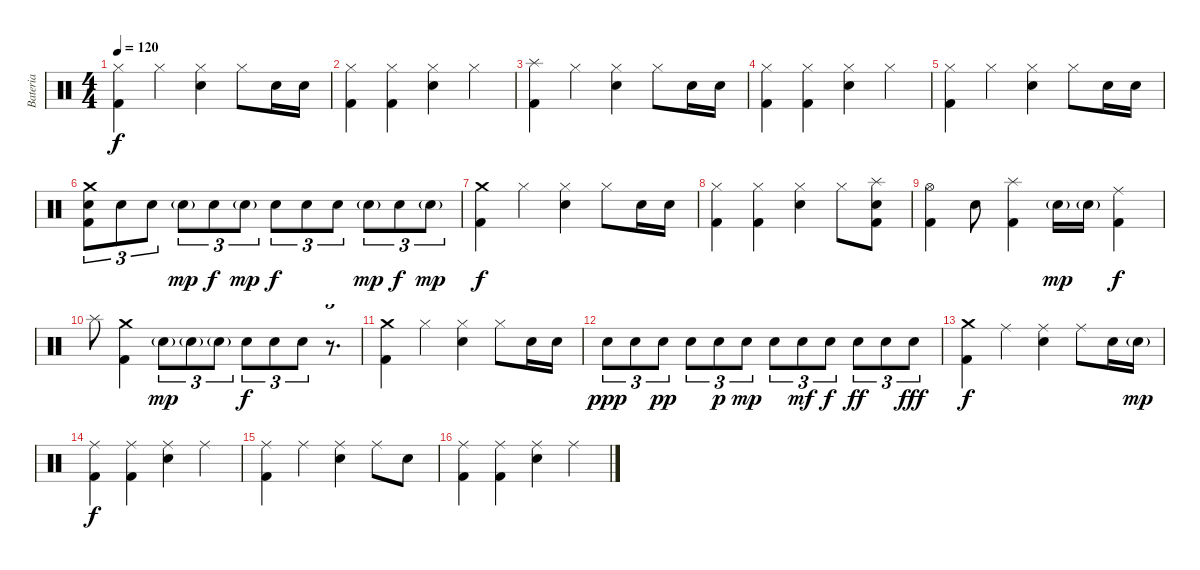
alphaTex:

\track ("Bateria" "Bateria") {instrument percussion}
\staff
\articulation defaults
\ts (4 4)
\tempo 120
\clef neutral
\ks c
("Hi-Hat (closed)" "Kick (hit) 2").4{dy f} "Hi-Hat (closed)".4 ("Hi-Hat (closed)" "Electric Snare (hit)").4 "Hi-Hat (closed)".8 "Electric Snare (hit)".16 "Electric Snare (hit)".16 |
("Hi-Hat (closed)" "Kick (hit) 2").4 ("Hi-Hat (closed)" "Kick (hit) 2").4 ("Hi-Hat (closed)" "Electric Snare (hit)").4 "Hi-Hat (closed)".4 |
("Splash (hit)" "Kick (hit) 2").4 "Hi-Hat (closed)".4 ("Hi-Hat (closed)" "Electric Snare (hit)").4 "Hi-Hat (closed)".8 "Electric Snare (hit)".16 "Electric Snare (hit)".16 |
("Hi-Hat (closed)" "Kick (hit) 2").4 ("Hi-Hat (closed)" "Kick (hit) 2").4 ("Hi-Hat (closed)" "Electric Snare (hit)").4 "Hi-Hat (closed)".4 |
("Hi-Hat (closed)" "Kick (hit) 2").4 "Hi-Hat (closed)".4 ("Hi-Hat (closed)" "Electric Snare (hit)").4 "Hi-Hat (closed)".8 "Electric Snare (hit)".16 "Electric Snare (hit)".16 |
("Crash medium (hit)" "Electric Snare (hit)" "Kick (hit) 2").8{tu (3 2)} "Electric Snare (hit)".8{tu (3 2)} "Electric Snare (hit)".8{tu (3 2)} "Electric Snare (hit)"{g}.8{tu (3 2) dy mp} "Electric Snare (hit)".8{tu (3 2) dy f} "Electric Snare (hit)"{g}.8{tu (3 2) dy mp} "Electric Snare (hit)".8{tu (3 2) dy f} "Electric Snare (hit)".8{tu (3 2)} "Electric Snare (hit)".8{tu (3 2)} "Electric Snare (hit)"{g}.8{tu (3 2) dy mp} "Electric Snare (hit)".8{tu (3 2) dy f} "Electric Snare (hit)"{g}.8{tu (3 2) dy mp} |
("Crash medium (hit)" "Kick (hit) 2").4{dy f} "Hi-Hat (closed)".4 ("Hi-Hat (closed)" "Electric Snare (hit)").4 "Hi-Hat (closed)".8 "Electric Snare (hit)".16 "Electric Snare (hit)".16 |
("Hi-Hat (closed)" "Kick (hit) 2").4 ("Hi-Hat (closed)" "Kick (hit) 2").4 ("Hi-Hat (closed)" "Electric Snare (hit)").4 "Hi-Hat (closed)".8 ("Splash (hit)" "Electric Snare (hit)" "Kick (hit) 2").8 |
("Hi-Hat (open)" "Kick (hit) 2").4 "Electric Snare (hit)".8 ("Splash (hit)" "Kick (hit) 2").4 "Electric Snare (hit)"{g}.16{dy mp} "Electric Snare (hit)"{g}.16 ("Ride (middle)" "Kick (hit) 2").4{dy f} |
"Splash (hit)".8 ("Crash medium (hit)" "Kick (hit) 2").4 "Electric Snare (hit)"{g}.8{tu (3 2) dy mp} "Electric Snare (hit)"{g}.8{tu (3 2)} "Electric Snare (hit)"{g}.8{tu (3 2)} "Electric Snare (hit)".8{tu (3 2) dy f} "Electric Snare (hit)".8{tu (3 2)} "Electric Snare (hit)".8{tu (3 2)} r.8{d tu (3 2)} |
("Crash medium (hit)" "Kick (hit) 2").4 "Hi-Hat (closed)".4 ("Hi-Hat (closed)" "Electric Snare (hit)").4 "Hi-Hat (closed)".8 "Electric Snare (hit)".16 "Electric Snare (hit)".16 |
"Electric Snare (hit)".8{tu (3 2) dy ppp} "Electric Snare (hit)".8{tu (3 2)} "Electric Snare (hit)".8{tu (3 2) dy pp} "Electric Snare (hit)".8{tu (3 2)} "Electric Snare (hit)".8{tu (3 2) dy p} "Electric Snare (hit)".8{tu (3 2) dy mp} "Electric Snare (hit)".8{tu (3 2)} "Electric Snare (hit)".8{tu (3 2) dy mf} "Electric Snare (hit)".8{tu (3 2) dy f} "Electric Snare (hit)".8{tu (3 2) dy ff} "Electric Snare (hit)".8{tu (3 2)} "Electric Snare (hit)".8{tu (3 2) dy fff} |
("Crash medium (hit)" "Kick (hit) 2").4{dy f} "Ride (middle)".4 ("Ride (middle)" "Electric Snare (hit)").4 "Ride (middle)".8 "Electric Snare (hit)".16 "Electric Snare (hit)"{g}.16{dy mp} |
("Ride (middle)" "Kick (hit) 2").4{dy f} ("Ride (middle)" "Kick (hit) 2").4 ("Ride (middle)" "Electric Snare (hit)").4 "Ride (middle)".4 |
("Ride (middle)" "Kick (hit) 2").4 "Ride (middle)".4 ("Ride (middle)" "Electric Snare (hit)").4 "Ride (middle)".8 "Electric Snare (hit)".8 |
("Ride (middle)" "Kick (hit) 2").4 ("Ride (middle)" "Kick (hit) 2").4 ("Ride (middle)" "Electric Snare (hit)").4 "Ride (middle)".4
